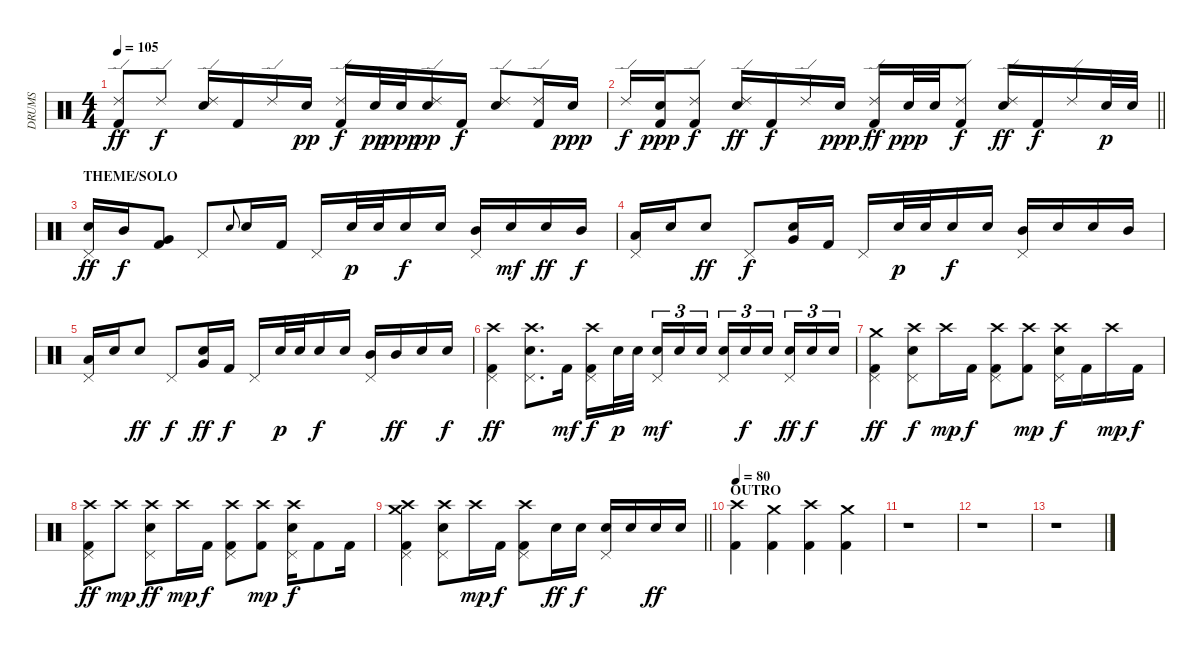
\track ("DRUMS" "DRUMS") {instrument percussion}
\staff {score}
\articulation defaults
\ts (4 4)
\tempo 105
\clef neutral
\ks c
("Ride (edge) 2" "Kick (hit) 2").8{dy ff} "Ride (edge) 2".8{dy f} ("Ride (edge) 2" "Snare (hit) 2").16 "Kick (hit) 2".16 "Ride (edge) 2".16 "Snare (hit) 2".16{dy pp} ("Ride (edge) 2" "Kick (hit) 2").16{dy f} "Snare (hit) 2".32{dy pp} "Snare (hit) 2".32{dy ppp} ("Ride (edge) 2" "Snare (hit) 2").16{dy pp} "Kick (hit) 2".16{dy f} ("Ride (edge) 2" "Snare (hit) 2").8 ("Ride (edge) 2" "Kick (hit) 2").16 "Snare (hit) 2".16{dy ppp} |
\barLineRight lightlight "Ride (edge) 2".16{dy f}
("Snare (hit) 2" "Kick (hit) 2").16{dy ppp} ("Ride (edge) 2" "Kick (hit) 2").8{dy f} ("Ride (edge) 2" "Snare (hit) 2").16{dy ff} "Kick (hit) 2".16{dy f} "Ride (edge) 2".16 "Snare (hit) 2".16{dy ppp} ("Ride (edge) 2" "Kick (hit) 2").16{dy ff} "Snare (hit) 2".32{dy ppp} "Snare (hit) 2".32 ("Ride (edge) 2" "Kick (hit) 2").8{dy f} ("Ride (edge) 2" "Snare (hit) 2").16{dy ff} "Kick (hit) 2".16{dy f} "Ride (edge) 2".16 "Snare (hit) 2".32{dy p} "Snare (hit) 2".32 |
\section ("" "THEME/SOLO")
("Pedal Hi-Hat (hit)" "Electric Snare (hit)").16{dy ff} "Mid Tom (hit)".16{dy f} ("Very Low Tom (hit)" "Kick (hit) 2").8 "Pedal Hi-Hat (hit)".8 "Electric Snare (hit)".8{gr onbeat} "Snare (hit) 2".16 "Kick (hit) 2".16 "Pedal Hi-Hat (hit)".16 "Snare (hit) 2".32{dy p} "Snare (hit) 2".32 "Electric Snare (hit)".16{dy f} "Snare (hit) 2".16 ("Pedal Hi-Hat (hit)" "Mid Tom (hit)").16 "Snare (hit) 2".16{dy mf} "Electric Snare (hit)".16{dy ff} "Mid Tom (hit)".16{dy f} |
("Pedal Hi-Hat (hit)" "Low Tom (hit)").16 "Snare (hit) 2".16 "Electric Snare (hit)".8{dy ff} "Pedal Hi-Hat (hit)".8{dy f} ("Snare (hit) 2" "Very Low Tom (hit)").16 "Kick (hit) 2".16 "Pedal Hi-Hat (hit)".16 "Snare (hit) 2".32{dy p} "Snare (hit) 2".32 "Electric Snare (hit)".16{dy f} "Snare (hit) 2".16 ("Pedal Hi-Hat (hit)" "Mid Tom (hit)").16 "Snare (hit) 2".16 "Electric Snare (hit)".16 "Mid Tom (hit)".16 |
("Pedal Hi-Hat (hit)" "Low Tom (hit)").16 "Snare (hit) 2".16 "Electric Snare (hit)".8{dy ff} "Pedal Hi-Hat (hit)".8{dy f} ("Snare (hit) 2" "Very Low Tom (hit)").16{dy ff} "Kick (hit) 2".16{dy f} "Pedal Hi-Hat (hit)".16 "Snare (hit) 2".32{dy p} "Snare (hit) 2".32 "Electric Snare (hit)".16{dy f} "Snare (hit) 2".16 ("Pedal Hi-Hat (hit)" "Mid Tom (hit)").16 "Mid Tom (hit)".16{dy ff} "Electric Snare (hit)".16 "Snare (hit) 2".16{dy f} |
("Crash high (hit)" "Pedal Hi-Hat (hit)" "Kick (hit) 2").4{dy ff} ("Crash high (hit)" "Pedal Hi-Hat (hit)" "Snare (hit) 2").8{d} "Kick (hit) 2".16{dy mf} ("Crash high (hit)" "Pedal Hi-Hat (hit)" "Kick (hit) 2").16{dy f} "Snare (hit) 2".32{dy p} "Snare (hit) 2".32{beam splitsecondary} ("Pedal Hi-Hat (hit)" "Electric Snare (hit)").16{tu (3 2) dy mf} "Snare (hit) 2".16{tu (3 2)} "Electric Snare (hit)".16{tu (3 2)} ("Pedal Hi-Hat (hit)" "Snare (hit) 2").16{tu (3 2)} "Electric Snare (hit)".16{tu (3 2) dy f} "Snare (hit) 2".16{tu (3 2) beam splitsecondary} ("Pedal Hi-Hat (hit)" "Electric Snare (hit)").16{tu (3 2) dy ff} "Snare (hit) 2".16{tu (3 2) dy f} "Electric Snare (hit)".16{tu (3 2)} |
("Crash medium (hit)" "Pedal Hi-Hat (hit)" "Kick (hit) 2").4{dy ff} ("Crash high (hit)" "Pedal Hi-Hat (hit)" "Snare (hit) 2").8{dy f} "Crash high (hit)".16{dy mp} "Kick (hit) 2".16{dy f} ("Crash high (hit)" "Pedal Hi-Hat (hit)" "Kick (hit) 2").8 ("Crash high (hit)" "Kick (hit) 2").8{dy mp} ("Crash high (hit)" "Pedal Hi-Hat (hit)" "Snare (hit) 2").16{dy f} "Kick (hit) 2".16 "Crash high (hit)".16{dy mp} "Kick (hit) 2".16{dy f} |
("Crash high (hit)" "Pedal Hi-Hat (hit)" "Kick (hit) 2").8{dy ff} "Crash high (hit)".8{dy mp} ("Crash high (hit)" "Pedal Hi-Hat (hit)" "Snare (hit) 2").8{dy ff} "Crash high (hit)".16{dy mp} "Kick (hit) 2".16{dy f} ("Crash high (hit)" "Pedal Hi-Hat (hit)" "Kick (hit) 2").8 ("Crash high (hit)" "Kick (hit) 2").8{dy mp} ("Crash high (hit)" "Pedal Hi-Hat (hit)" "Snare (hit) 2").16{dy f} "Kick (hit) 2".8 "Kick (hit) 2".16 |
\barLineRight lightlight
("Crash high (hit)" "Crash medium (hit)" "Pedal Hi-Hat (hit)" "Kick (hit) 2").4 ("Crash high (hit)" "Pedal Hi-Hat (hit)" "Snare (hit) 2").8 "Crash high (hit)".16{dy mp} "Kick (hit) 2".16{dy f} ("Crash high (hit)" "Pedal Hi-Hat (hit)" "Kick (hit) 2").8 "Electric Snare (hit)".16{dy ff} "Snare (hit) 2".16{dy f} ("Pedal Hi-Hat (hit)" "Electric Snare (hit)").16 "Snare (hit) 2".16 "Electric Snare (hit)".16{dy ff} "Snare (hit) 2".16 |
\section ("" "OUTRO")
\tempo 80
("Crash high (hit)" "Kick (hit) 2").4 ("Crash medium (hit)" "Kick (hit) 2").4 ("Crash high (hit)" "Kick (hit) 2").4 ("Crash medium (hit)" "Kick (hit) 2").4 |
r.1{volume 0} |
r.1 |
r.1
